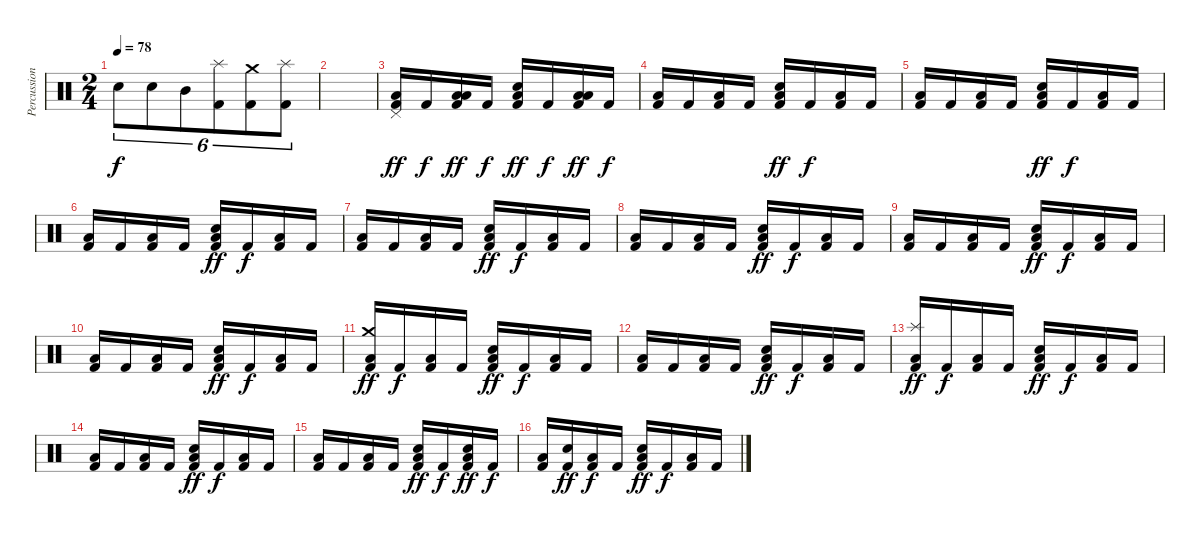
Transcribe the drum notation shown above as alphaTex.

\track ("Percussion" "Percussion") {instrument percussion}
\staff {score}
\articulation defaults
\ts (2 4)
\tempo 78
\clef neutral
\ks c "Snare (hit) 2".8{tu (6 4) dy f} "Snare (hit) 2".8{tu (6 4)} "Mid Tom (hit)".8{tu (6 4)}
("Kick (hit) 2" "Splash (hit)").8{tu (6 4)} ("Kick (hit) 2" "Crash medium (hit)").8{tu (6 4)} ("Kick (hit) 2" "Splash (hit)").8{tu (6 4)} |
|
("Kick (hit) 2" "Pedal Hi-Hat (hit)" "Low Tom (hit)").16{dy ff} "Kick (hit) 2".16{dy f} ("Kick (hit) 2" "Low Tom (hit)" "Low Tom (hit)").16{dy ff} "Kick (hit) 2".16{dy f} ("Kick (hit) 2" "Snare (hit) 2" "Low Tom (hit)").16{dy ff} "Kick (hit) 2".16{dy f} ("Kick (hit) 2" "Low Tom (hit)" "Low Tom (hit)").16{dy ff} "Kick (hit) 2".16{dy f} |
("Kick (hit) 2" "Low Tom (hit)").16 "Kick (hit) 2".16 ("Kick (hit) 2" "Low Tom (hit)").16 "Kick (hit) 2".16 ("Kick (hit) 2" "Snare (hit) 2" "Low Tom (hit)").16{dy ff} "Kick (hit) 2".16{dy f} ("Kick (hit) 2" "Low Tom (hit)").16 "Kick (hit) 2".16 |
("Kick (hit) 2" "Low Tom (hit)").16 "Kick (hit) 2".16 ("Kick (hit) 2" "Low Tom (hit)").16 "Kick (hit) 2".16 ("Kick (hit) 2" "Snare (hit) 2" "Low Tom (hit)").16{dy ff} "Kick (hit) 2".16{dy f} ("Kick (hit) 2" "Low Tom (hit)").16 "Kick (hit) 2".16 |
("Kick (hit) 2" "Low Tom (hit)").16 "Kick (hit) 2".16 ("Kick (hit) 2" "Low Tom (hit)").16 "Kick (hit) 2".16 ("Kick (hit) 2" "Snare (hit) 2" "Low Tom (hit)").16{dy ff} "Kick (hit) 2".16{dy f} ("Kick (hit) 2" "Low Tom (hit)").16 "Kick (hit) 2".16 |
("Kick (hit) 2" "Low Tom (hit)").16 "Kick (hit) 2".16 ("Kick (hit) 2" "Low Tom (hit)").16 "Kick (hit) 2".16 ("Kick (hit) 2" "Snare (hit) 2" "Low Tom (hit)").16{dy ff} "Kick (hit) 2".16{dy f} ("Kick (hit) 2" "Low Tom (hit)").16 "Kick (hit) 2".16 |
("Kick (hit) 2" "Low Tom (hit)").16 "Kick (hit) 2".16 ("Kick (hit) 2" "Low Tom (hit)").16 "Kick (hit) 2".16 ("Kick (hit) 2" "Snare (hit) 2" "Low Tom (hit)").16{dy ff} "Kick (hit) 2".16{dy f} ("Kick (hit) 2" "Low Tom (hit)").16 "Kick (hit) 2".16 |
("Kick (hit) 2" "Low Tom (hit)").16 "Kick (hit) 2".16 ("Kick (hit) 2" "Low Tom (hit)").16 "Kick (hit) 2".16 ("Kick (hit) 2" "Snare (hit) 2" "Low Tom (hit)").16{dy ff} "Kick (hit) 2".16{dy f} ("Kick (hit) 2" "Low Tom (hit)").16 "Kick (hit) 2".16 |
("Kick (hit) 2" "Low Tom (hit)").16 "Kick (hit) 2".16 ("Kick (hit) 2" "Low Tom (hit)").16 "Kick (hit) 2".16 ("Kick (hit) 2" "Snare (hit) 2" "Low Tom (hit)").16{dy ff} "Kick (hit) 2".16{dy f} ("Kick (hit) 2" "Low Tom (hit)").16 "Kick (hit) 2".16 |
("Kick (hit) 2" "Crash medium (hit)" "Low Tom (hit)").16{dy ff} "Kick (hit) 2".16{dy f} ("Kick (hit) 2" "Low Tom (hit)").16 "Kick (hit) 2".16 ("Kick (hit) 2" "Snare (hit) 2" "Low Tom (hit)").16{dy ff} "Kick (hit) 2".16{dy f} ("Kick (hit) 2" "Low Tom (hit)").16 "Kick (hit) 2".16 |
("Kick (hit) 2" "Low Tom (hit)").16 "Kick (hit) 2".16 ("Kick (hit) 2" "Low Tom (hit)").16 "Kick (hit) 2".16 ("Kick (hit) 2" "Snare (hit) 2" "Low Tom (hit)").16{dy ff} "Kick (hit) 2".16{dy f} ("Kick (hit) 2" "Low Tom (hit)").16 "Kick (hit) 2".16 |
("Kick (hit) 2" "Splash (hit)" "Low Tom (hit)").16{dy ff} "Kick (hit) 2".16{dy f} ("Kick (hit) 2" "Low Tom (hit)").16 "Kick (hit) 2".16 ("Kick (hit) 2" "Snare (hit) 2" "Low Tom (hit)").16{dy ff} "Kick (hit) 2".16{dy f} ("Kick (hit) 2" "Low Tom (hit)").16 "Kick (hit) 2".16 |
("Kick (hit) 2" "Low Tom (hit)").16 "Kick (hit) 2".16 ("Kick (hit) 2" "Low Tom (hit)").16 "Kick (hit) 2".16 ("Kick (hit) 2" "Snare (hit) 2" "Low Tom (hit)").16{dy ff} "Kick (hit) 2".16{dy f} ("Kick (hit) 2" "Low Tom (hit)").16 "Kick (hit) 2".16 |
("Kick (hit) 2" "Low Tom (hit)").16 "Kick (hit) 2".16 ("Kick (hit) 2" "Low Tom (hit)").16 "Kick (hit) 2".16 ("Kick (hit) 2" "Snare (hit) 2" "Low Tom (hit)").16{dy ff} "Kick (hit) 2".16{dy f} ("Kick (hit) 2" "Snare (hit) 2" "Low Tom (hit)").16{dy ff} "Kick (hit) 2".16{dy f} |
("Kick (hit) 2" "Low Tom (hit)").16 ("Kick (hit) 2" "Snare (hit) 2").16{dy ff} ("Kick (hit) 2" "Low Tom (hit)").16{dy f} "Kick (hit) 2".16 ("Kick (hit) 2" "Snare (hit) 2" "Low Tom (hit)").16{dy ff} "Kick (hit) 2".16{dy f} ("Kick (hit) 2" "Low Tom (hit)").16 "Kick (hit) 2".16
